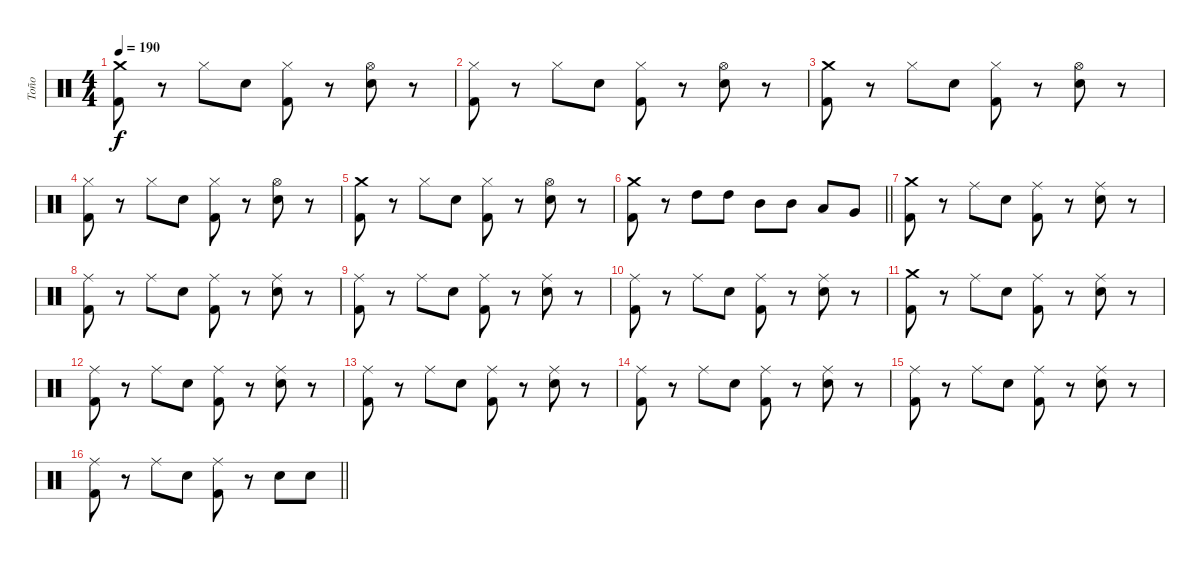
\track ("Toño" "Toño") {instrument percussion}
\staff {score}
\articulation defaults
\ts (4 4)
\tempo 190
\clef neutral
\ks c
("Crash medium (hit)" "Kick (hit) 2").8{dy f} r.8 "Hi-Hat (closed)".8 "Snare (hit) 2".8 ("Hi-Hat (closed)" "Kick (hit) 2").8 r.8 ("Hi-Hat (open)" "Snare (hit) 2").8 r.8 |
("Hi-Hat (closed)" "Kick (hit) 2").8 r.8 "Hi-Hat (closed)".8 "Snare (hit) 2".8 ("Hi-Hat (closed)" "Kick (hit) 2").8 r.8 ("Hi-Hat (open)" "Snare (hit) 2").8 r.8 |
("Crash medium (hit)" "Kick (hit) 2").8 r.8 "Hi-Hat (closed)".8 "Snare (hit) 2".8 ("Hi-Hat (closed)" "Kick (hit) 2").8 r.8 ("Hi-Hat (open)" "Snare (hit) 2").8 r.8 |
("Hi-Hat (closed)" "Kick (hit) 2").8 r.8 "Hi-Hat (closed)".8 "Snare (hit) 2".8 ("Hi-Hat (closed)" "Kick (hit) 2").8 r.8 ("Hi-Hat (open)" "Snare (hit) 2").8 r.8 |
("Crash medium (hit)" "Kick (hit) 2").8 r.8 "Hi-Hat (closed)".8 "Snare (hit) 2".8 ("Hi-Hat (closed)" "Kick (hit) 2").8 r.8 ("Hi-Hat (open)" "Snare (hit) 2").8 r.8 |
\barLineRight lightlight
("Crash medium (hit)" "Kick (hit) 2").8 r.8 "High Tom (hit)".8 "High Tom (hit)".8 "Mid Tom (hit)".8 "Mid Tom (hit)".8 "Low Tom (hit)".8 "Very Low Tom (hit)".8 |
("Crash medium (hit)" "Kick (hit) 2").8 r.8 "Ride (middle)".8 "Snare (hit) 2".8 ("Ride (middle)" "Kick (hit) 2").8 r.8 ("Ride (middle)" "Snare (hit) 2").8 r.8 |
("Ride (middle)" "Kick (hit) 2").8 r.8 "Ride (middle)".8 "Snare (hit) 2".8 ("Ride (middle)" "Kick (hit) 2").8 r.8 ("Ride (middle)" "Snare (hit) 2").8 r.8 |
("Ride (middle)" "Kick (hit) 2").8 r.8 "Ride (middle)".8 "Snare (hit) 2".8 ("Ride (middle)" "Kick (hit) 2").8 r.8 ("Ride (middle)" "Snare (hit) 2").8 r.8 |
("Ride (middle)" "Kick (hit) 2").8 r.8 "Ride (middle)".8 "Snare (hit) 2".8 ("Ride (middle)" "Kick (hit) 2").8 r.8 ("Ride (middle)" "Snare (hit) 2").8 r.8 |
("Crash medium (hit)" "Kick (hit) 2").8 r.8 "Ride (middle)".8 "Snare (hit) 2".8 ("Ride (middle)" "Kick (hit) 2").8 r.8 ("Ride (middle)" "Snare (hit) 2").8 r.8 |
("Ride (middle)" "Kick (hit) 2").8 r.8 "Ride (middle)".8 "Snare (hit) 2".8 ("Ride (middle)" "Kick (hit) 2").8 r.8 ("Ride (middle)" "Snare (hit) 2").8 r.8 |
("Ride (middle)" "Kick (hit) 2").8 r.8 "Ride (middle)".8 "Snare (hit) 2".8 ("Ride (middle)" "Kick (hit) 2").8 r.8 ("Ride (middle)" "Snare (hit) 2").8 r.8 |
("Ride (middle)" "Kick (hit) 2").8 r.8 "Ride (middle)".8 "Snare (hit) 2".8 ("Ride (middle)" "Kick (hit) 2").8 r.8 ("Ride (middle)" "Snare (hit) 2").8 r.8 |
("Ride (middle)" "Kick (hit) 2").8 r.8 "Ride (middle)".8 "Snare (hit) 2".8 ("Ride (middle)" "Kick (hit) 2").8 r.8 ("Ride (middle)" "Snare (hit) 2").8 r.8 |
\barLineRight lightlight
("Ride (middle)" "Kick (hit) 2").8 r.8 "Ride (middle)".8 "Snare (hit) 2".8 ("Ride (middle)" "Kick (hit) 2").8 r.8 "Snare (hit) 2".8 "Snare (hit) 2".8
